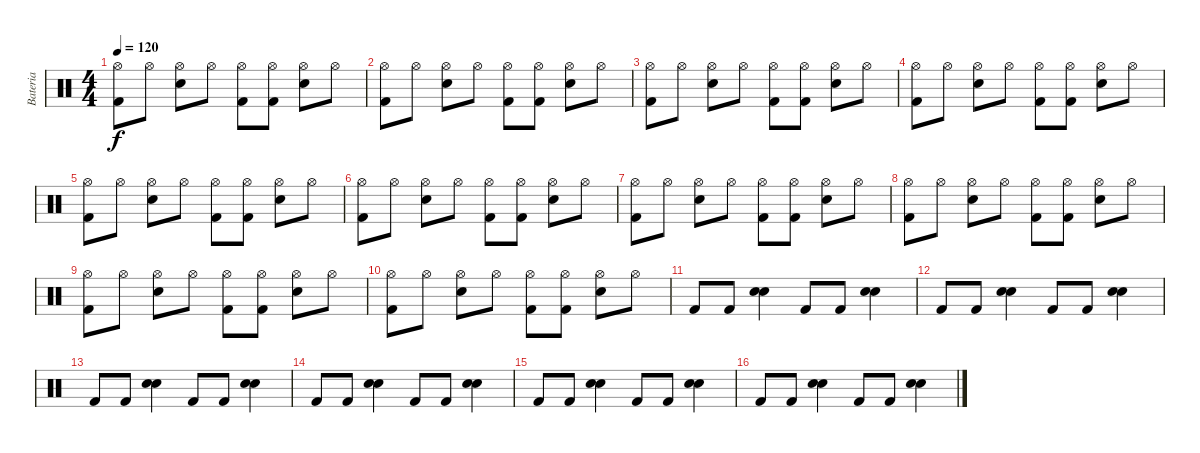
\track ("Bateria" "Bateria") {instrument percussion}
\staff {score}
\articulation defaults
\ts (4 4)
\tempo 120
\clef neutral
\ks c
("Hi-Hat (open)" "Kick (hit) 2").8{dy f} "Hi-Hat (open)".8 ("Hi-Hat (open)" "Snare (hit) 2").8 "Hi-Hat (open)".8 ("Hi-Hat (open)" "Kick (hit) 2").8 ("Hi-Hat (open)" "Kick (hit) 2").8 ("Hi-Hat (open)" "Electric Snare (hit)").8 "Hi-Hat (open)".8 |
("Hi-Hat (open)" "Kick (hit) 2").8 "Hi-Hat (open)".8 ("Hi-Hat (open)" "Snare (hit) 2").8 "Hi-Hat (open)".8 ("Hi-Hat (open)" "Kick (hit) 2").8 ("Hi-Hat (open)" "Kick (hit) 2").8 ("Hi-Hat (open)" "Electric Snare (hit)").8 "Hi-Hat (open)".8 |
("Hi-Hat (open)" "Kick (hit) 2").8 "Hi-Hat (open)".8 ("Hi-Hat (open)" "Snare (hit) 2").8 "Hi-Hat (open)".8 ("Hi-Hat (open)" "Kick (hit) 2").8 ("Hi-Hat (open)" "Kick (hit) 2").8 ("Hi-Hat (open)" "Electric Snare (hit)").8 "Hi-Hat (open)".8 |
("Hi-Hat (open)" "Kick (hit) 2").8 "Hi-Hat (open)".8 ("Hi-Hat (open)" "Snare (hit) 2").8 "Hi-Hat (open)".8 ("Hi-Hat (open)" "Kick (hit) 2").8 ("Hi-Hat (open)" "Kick (hit) 2").8 ("Hi-Hat (open)" "Electric Snare (hit)").8 "Hi-Hat (open)".8 |
("Hi-Hat (open)" "Kick (hit) 2").8 "Hi-Hat (open)".8 ("Hi-Hat (open)" "Snare (hit) 2").8 "Hi-Hat (open)".8 ("Hi-Hat (open)" "Kick (hit) 2").8 ("Hi-Hat (open)" "Kick (hit) 2").8 ("Hi-Hat (open)" "Electric Snare (hit)").8 "Hi-Hat (open)".8 |
("Hi-Hat (open)" "Kick (hit) 2").8 "Hi-Hat (open)".8 ("Hi-Hat (open)" "Snare (hit) 2").8 "Hi-Hat (open)".8 ("Hi-Hat (open)" "Kick (hit) 2").8 ("Hi-Hat (open)" "Kick (hit) 2").8 ("Hi-Hat (open)" "Electric Snare (hit)").8 "Hi-Hat (open)".8 |
("Hi-Hat (open)" "Kick (hit) 2").8 "Hi-Hat (open)".8 ("Hi-Hat (open)" "Snare (hit) 2").8 "Hi-Hat (open)".8 ("Hi-Hat (open)" "Kick (hit) 2").8 ("Hi-Hat (open)" "Kick (hit) 2").8 ("Hi-Hat (open)" "Electric Snare (hit)").8 "Hi-Hat (open)".8 |
("Hi-Hat (open)" "Kick (hit) 2").8 "Hi-Hat (open)".8 ("Hi-Hat (open)" "Snare (hit) 2").8 "Hi-Hat (open)".8 ("Hi-Hat (open)" "Kick (hit) 2").8 ("Hi-Hat (open)" "Kick (hit) 2").8 ("Hi-Hat (open)" "Electric Snare (hit)").8 "Hi-Hat (open)".8 |
("Hi-Hat (open)" "Kick (hit) 2").8 "Hi-Hat (open)".8 ("Hi-Hat (open)" "Snare (hit) 2").8 "Hi-Hat (open)".8 ("Hi-Hat (open)" "Kick (hit) 2").8 ("Hi-Hat (open)" "Kick (hit) 2").8 ("Hi-Hat (open)" "Electric Snare (hit)").8 "Hi-Hat (open)".8 |
("Hi-Hat (open)" "Kick (hit) 2").8 "Hi-Hat (open)".8 ("Hi-Hat (open)" "Snare (hit) 2").8 "Hi-Hat (open)".8 ("Hi-Hat (open)" "Kick (hit) 2").8 ("Hi-Hat (open)" "Kick (hit) 2").8 ("Hi-Hat (open)" "Electric Snare (hit)").8 "Hi-Hat (open)".8 |
"Kick (hit) 2".8 "Kick (hit) 2".8 ("Hand Clap (hit)" "Snare (hit) 2").4 "Kick (hit) 2".8 "Kick (hit) 2".8 ("Hand Clap (hit)" "Snare (hit) 2").4 |
"Kick (hit) 2".8 "Kick (hit) 2".8 ("Hand Clap (hit)" "Snare (hit) 2").4 "Kick (hit) 2".8 "Kick (hit) 2".8 ("Hand Clap (hit)" "Snare (hit) 2").4 |
"Kick (hit) 2".8 "Kick (hit) 2".8 ("Hand Clap (hit)" "Snare (hit) 2").4 "Kick (hit) 2".8 "Kick (hit) 2".8 ("Hand Clap (hit)" "Snare (hit) 2").4 |
"Kick (hit) 2".8 "Kick (hit) 2".8 ("Hand Clap (hit)" "Snare (hit) 2").4 "Kick (hit) 2".8 "Kick (hit) 2".8 ("Hand Clap (hit)" "Snare (hit) 2").4 |
"Kick (hit) 2".8 "Kick (hit) 2".8 ("Hand Clap (hit)" "Snare (hit) 2").4 "Kick (hit) 2".8 "Kick (hit) 2".8 ("Hand Clap (hit)" "Snare (hit) 2").4 |
"Kick (hit) 2".8 "Kick (hit) 2".8 ("Hand Clap (hit)" "Snare (hit) 2").4 "Kick (hit) 2".8 "Kick (hit) 2".8 ("Hand Clap (hit)" "Snare (hit) 2").4
